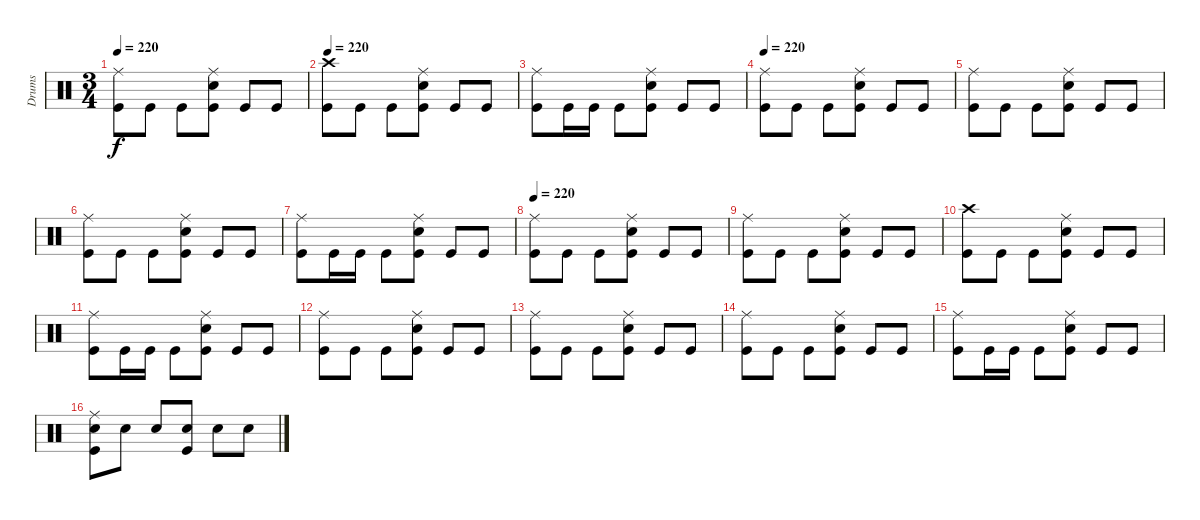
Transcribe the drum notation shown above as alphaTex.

\track ("Drums" "Drums") {instrument percussion}
\staff {score}
\articulation defaults
\ts (3 4)
\tempo 220
\clef neutral
\ks c
("Ride (middle)" "Kick (hit)").8{dy f} "Kick (hit)".8 "Kick (hit)".8 ("Ride (middle)" "Electric Snare (hit)" "Kick (hit)").8 "Kick (hit)".8 "Kick (hit)".8 |
\tempo 220
("Crash high (hit)" "Kick (hit)").8 "Kick (hit)".8 "Kick (hit)".8 ("Ride (middle)" "Electric Snare (hit)" "Kick (hit)").8 "Kick (hit)".8 "Kick (hit)".8 |
("Ride (middle)" "Kick (hit)").8 "Kick (hit)".16 "Kick (hit)".16 "Kick (hit)".8 ("Ride (middle)" "Electric Snare (hit)" "Kick (hit)").8 "Kick (hit)".8 "Kick (hit)".8 |
\tempo 220
("Ride (middle)" "Kick (hit)").8 "Kick (hit)".8 "Kick (hit)".8 ("Ride (middle)" "Electric Snare (hit)" "Kick (hit)").8 "Kick (hit)".8 "Kick (hit)".8 |
("Ride (middle)" "Kick (hit)").8 "Kick (hit)".8 "Kick (hit)".8 ("Ride (middle)" "Electric Snare (hit)" "Kick (hit)").8 "Kick (hit)".8 "Kick (hit)".8 |
("Ride (middle)" "Kick (hit)").8 "Kick (hit)".8 "Kick (hit)".8 ("Ride (middle)" "Electric Snare (hit)" "Kick (hit)").8 "Kick (hit)".8 "Kick (hit)".8 |
("Ride (middle)" "Kick (hit)").8 "Kick (hit)".16 "Kick (hit)".16 "Kick (hit)".8 ("Ride (middle)" "Electric Snare (hit)" "Kick (hit)").8 "Kick (hit)".8 "Kick (hit)".8 |
\tempo 220
("Ride (middle)" "Kick (hit)").8 "Kick (hit)".8 "Kick (hit)".8 ("Ride (middle)" "Electric Snare (hit)" "Kick (hit)").8 "Kick (hit)".8 "Kick (hit)".8 |
("Ride (middle)" "Kick (hit)").8 "Kick (hit)".8 "Kick (hit)".8 ("Ride (middle)" "Electric Snare (hit)" "Kick (hit)").8 "Kick (hit)".8 "Kick (hit)".8 |
("Crash high (hit)" "Kick (hit)").8 "Kick (hit)".8 "Kick (hit)".8 ("Ride (middle)" "Electric Snare (hit)" "Kick (hit)").8 "Kick (hit)".8 "Kick (hit)".8 |
("Ride (middle)" "Kick (hit)").8 "Kick (hit)".16 "Kick (hit)".16 "Kick (hit)".8 ("Ride (middle)" "Electric Snare (hit)" "Kick (hit)").8 "Kick (hit)".8 "Kick (hit)".8 |
("Ride (middle)" "Kick (hit)").8 "Kick (hit)".8 "Kick (hit)".8 ("Ride (middle)" "Electric Snare (hit)" "Kick (hit)").8 "Kick (hit)".8 "Kick (hit)".8 |
("Ride (middle)" "Kick (hit)").8 "Kick (hit)".8 "Kick (hit)".8 ("Ride (middle)" "Electric Snare (hit)" "Kick (hit)").8 "Kick (hit)".8 "Kick (hit)".8 |
("Ride (middle)" "Kick (hit)").8 "Kick (hit)".8 "Kick (hit)".8 ("Ride (middle)" "Electric Snare (hit)" "Kick (hit)").8 "Kick (hit)".8 "Kick (hit)".8 |
("Ride (middle)" "Kick (hit)").8 "Kick (hit)".16 "Kick (hit)".16 "Kick (hit)".8 ("Ride (middle)" "Electric Snare (hit)" "Kick (hit)").8 "Kick (hit)".8 "Kick (hit)".8 |
("Ride (middle)" "Electric Snare (hit)" "Kick (hit)").8 "Electric Snare (hit)".8 "Electric Snare (hit)".8 ("Electric Snare (hit)" "Kick (hit)").8 "Electric Snare (hit)".8 "Electric Snare (hit)".8
